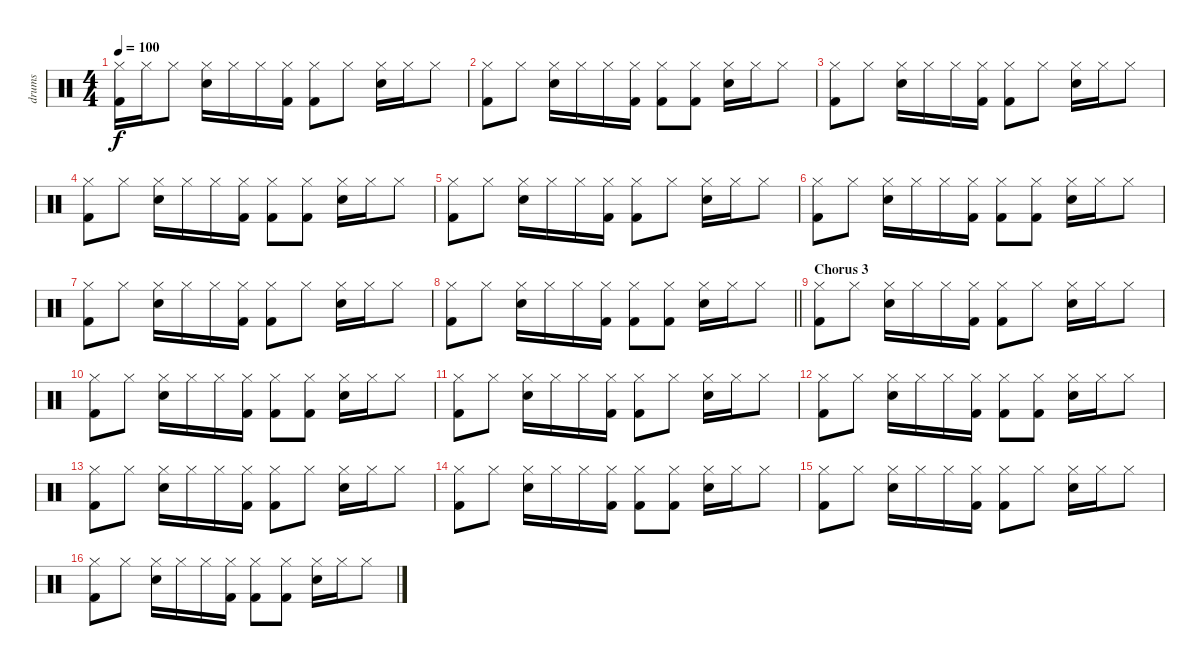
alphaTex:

\track ("drums" "drums") {instrument percussion}
\staff {score}
\articulation defaults
\ts (4 4)
\tempo 100
\clef neutral
\ks c
("Hi-Hat (closed)" "Kick (hit) 2").16{dy f} "Hi-Hat (closed)".16 "Hi-Hat (closed)".8 ("Electric Snare (hit)" "Hi-Hat (closed)").16 "Hi-Hat (closed)".16 "Hi-Hat (closed)".16 ("Hi-Hat (closed)" "Kick (hit) 2").16 ("Hi-Hat (closed)" "Kick (hit) 2").8 "Hi-Hat (closed)".8 ("Electric Snare (hit)" "Hi-Hat (closed)").16 "Hi-Hat (closed)".16 "Hi-Hat (closed)".8 |
("Hi-Hat (closed)" "Kick (hit) 2").8 "Hi-Hat (closed)".8 ("Electric Snare (hit)" "Hi-Hat (closed)").16 "Hi-Hat (closed)".16 "Hi-Hat (closed)".16 ("Hi-Hat (closed)" "Kick (hit) 2").16 ("Hi-Hat (closed)" "Kick (hit) 2").8 ("Hi-Hat (closed)" "Kick (hit) 2").8 ("Electric Snare (hit)" "Hi-Hat (closed)").16 "Hi-Hat (closed)".16 "Hi-Hat (closed)".8 |
("Hi-Hat (closed)" "Kick (hit) 2").8 "Hi-Hat (closed)".8 ("Electric Snare (hit)" "Hi-Hat (closed)").16 "Hi-Hat (closed)".16 "Hi-Hat (closed)".16 ("Hi-Hat (closed)" "Kick (hit) 2").16 ("Hi-Hat (closed)" "Kick (hit) 2").8 "Hi-Hat (closed)".8 ("Electric Snare (hit)" "Hi-Hat (closed)").16 "Hi-Hat (closed)".16 "Hi-Hat (closed)".8 |
("Hi-Hat (closed)" "Kick (hit) 2").8 "Hi-Hat (closed)".8 ("Electric Snare (hit)" "Hi-Hat (closed)").16 "Hi-Hat (closed)".16 "Hi-Hat (closed)".16 ("Hi-Hat (closed)" "Kick (hit) 2").16 ("Hi-Hat (closed)" "Kick (hit) 2").8 ("Hi-Hat (closed)" "Kick (hit) 2").8 ("Electric Snare (hit)" "Hi-Hat (closed)").16 "Hi-Hat (closed)".16 "Hi-Hat (closed)".8 |
("Hi-Hat (closed)" "Kick (hit) 2").8 "Hi-Hat (closed)".8 ("Electric Snare (hit)" "Hi-Hat (closed)").16 "Hi-Hat (closed)".16 "Hi-Hat (closed)".16 ("Hi-Hat (closed)" "Kick (hit) 2").16 ("Hi-Hat (closed)" "Kick (hit) 2").8 "Hi-Hat (closed)".8 ("Electric Snare (hit)" "Hi-Hat (closed)").16 "Hi-Hat (closed)".16 "Hi-Hat (closed)".8 |
("Hi-Hat (closed)" "Kick (hit) 2").8 "Hi-Hat (closed)".8 ("Electric Snare (hit)" "Hi-Hat (closed)").16 "Hi-Hat (closed)".16 "Hi-Hat (closed)".16 ("Hi-Hat (closed)" "Kick (hit) 2").16 ("Hi-Hat (closed)" "Kick (hit) 2").8 ("Hi-Hat (closed)" "Kick (hit) 2").8 ("Electric Snare (hit)" "Hi-Hat (closed)").16 "Hi-Hat (closed)".16 "Hi-Hat (closed)".8 |
("Hi-Hat (closed)" "Kick (hit) 2").8 "Hi-Hat (closed)".8 ("Electric Snare (hit)" "Hi-Hat (closed)").16 "Hi-Hat (closed)".16 "Hi-Hat (closed)".16 ("Hi-Hat (closed)" "Kick (hit) 2").16 ("Hi-Hat (closed)" "Kick (hit) 2").8 "Hi-Hat (closed)".8 ("Electric Snare (hit)" "Hi-Hat (closed)").16 "Hi-Hat (closed)".16 "Hi-Hat (closed)".8 |
\barLineRight lightlight
("Hi-Hat (closed)" "Kick (hit) 2").8 "Hi-Hat (closed)".8 ("Electric Snare (hit)" "Hi-Hat (closed)").16 "Hi-Hat (closed)".16 "Hi-Hat (closed)".16 ("Hi-Hat (closed)" "Kick (hit) 2").16 ("Hi-Hat (closed)" "Kick (hit) 2").8 ("Hi-Hat (closed)" "Kick (hit) 2").8 ("Electric Snare (hit)" "Hi-Hat (closed)").16 "Hi-Hat (closed)".16 "Hi-Hat (closed)".8 |
\section ("" "Chorus 3")
("Hi-Hat (closed)" "Kick (hit) 2").8 "Hi-Hat (closed)".8 ("Electric Snare (hit)" "Hi-Hat (closed)").16 "Hi-Hat (closed)".16 "Hi-Hat (closed)".16 ("Hi-Hat (closed)" "Kick (hit) 2").16 ("Hi-Hat (closed)" "Kick (hit) 2").8 "Hi-Hat (closed)".8 ("Electric Snare (hit)" "Hi-Hat (closed)").16 "Hi-Hat (closed)".16 "Hi-Hat (closed)".8 |
("Hi-Hat (closed)" "Kick (hit) 2").8 "Hi-Hat (closed)".8 ("Electric Snare (hit)" "Hi-Hat (closed)").16 "Hi-Hat (closed)".16 "Hi-Hat (closed)".16 ("Hi-Hat (closed)" "Kick (hit) 2").16 ("Hi-Hat (closed)" "Kick (hit) 2").8 ("Hi-Hat (closed)" "Kick (hit) 2").8 ("Electric Snare (hit)" "Hi-Hat (closed)").16 "Hi-Hat (closed)".16 "Hi-Hat (closed)".8 |
("Hi-Hat (closed)" "Kick (hit) 2").8 "Hi-Hat (closed)".8 ("Electric Snare (hit)" "Hi-Hat (closed)").16 "Hi-Hat (closed)".16 "Hi-Hat (closed)".16 ("Hi-Hat (closed)" "Kick (hit) 2").16 ("Hi-Hat (closed)" "Kick (hit) 2").8 "Hi-Hat (closed)".8 ("Electric Snare (hit)" "Hi-Hat (closed)").16 "Hi-Hat (closed)".16 "Hi-Hat (closed)".8 |
("Hi-Hat (closed)" "Kick (hit) 2").8 "Hi-Hat (closed)".8 ("Electric Snare (hit)" "Hi-Hat (closed)").16 "Hi-Hat (closed)".16 "Hi-Hat (closed)".16 ("Hi-Hat (closed)" "Kick (hit) 2").16 ("Hi-Hat (closed)" "Kick (hit) 2").8 ("Hi-Hat (closed)" "Kick (hit) 2").8 ("Electric Snare (hit)" "Hi-Hat (closed)").16 "Hi-Hat (closed)".16 "Hi-Hat (closed)".8 |
("Hi-Hat (closed)" "Kick (hit) 2").8 "Hi-Hat (closed)".8 ("Electric Snare (hit)" "Hi-Hat (closed)").16 "Hi-Hat (closed)".16 "Hi-Hat (closed)".16 ("Hi-Hat (closed)" "Kick (hit) 2").16 ("Hi-Hat (closed)" "Kick (hit) 2").8 "Hi-Hat (closed)".8 ("Electric Snare (hit)" "Hi-Hat (closed)").16 "Hi-Hat (closed)".16 "Hi-Hat (closed)".8 |
("Hi-Hat (closed)" "Kick (hit) 2").8 "Hi-Hat (closed)".8 ("Electric Snare (hit)" "Hi-Hat (closed)").16 "Hi-Hat (closed)".16 "Hi-Hat (closed)".16 ("Hi-Hat (closed)" "Kick (hit) 2").16 ("Hi-Hat (closed)" "Kick (hit) 2").8 ("Hi-Hat (closed)" "Kick (hit) 2").8 ("Electric Snare (hit)" "Hi-Hat (closed)").16 "Hi-Hat (closed)".16 "Hi-Hat (closed)".8 |
("Hi-Hat (closed)" "Kick (hit) 2").8 "Hi-Hat (closed)".8 ("Electric Snare (hit)" "Hi-Hat (closed)").16 "Hi-Hat (closed)".16 "Hi-Hat (closed)".16 ("Hi-Hat (closed)" "Kick (hit) 2").16 ("Hi-Hat (closed)" "Kick (hit) 2").8 "Hi-Hat (closed)".8 ("Electric Snare (hit)" "Hi-Hat (closed)").16 "Hi-Hat (closed)".16 "Hi-Hat (closed)".8 |
("Hi-Hat (closed)" "Kick (hit) 2").8 "Hi-Hat (closed)".8 ("Electric Snare (hit)" "Hi-Hat (closed)").16 "Hi-Hat (closed)".16 "Hi-Hat (closed)".16 ("Hi-Hat (closed)" "Kick (hit) 2").16 ("Hi-Hat (closed)" "Kick (hit) 2").8 ("Hi-Hat (closed)" "Kick (hit) 2").8 ("Electric Snare (hit)" "Hi-Hat (closed)").16 "Hi-Hat (closed)".16 "Hi-Hat (closed)".8
